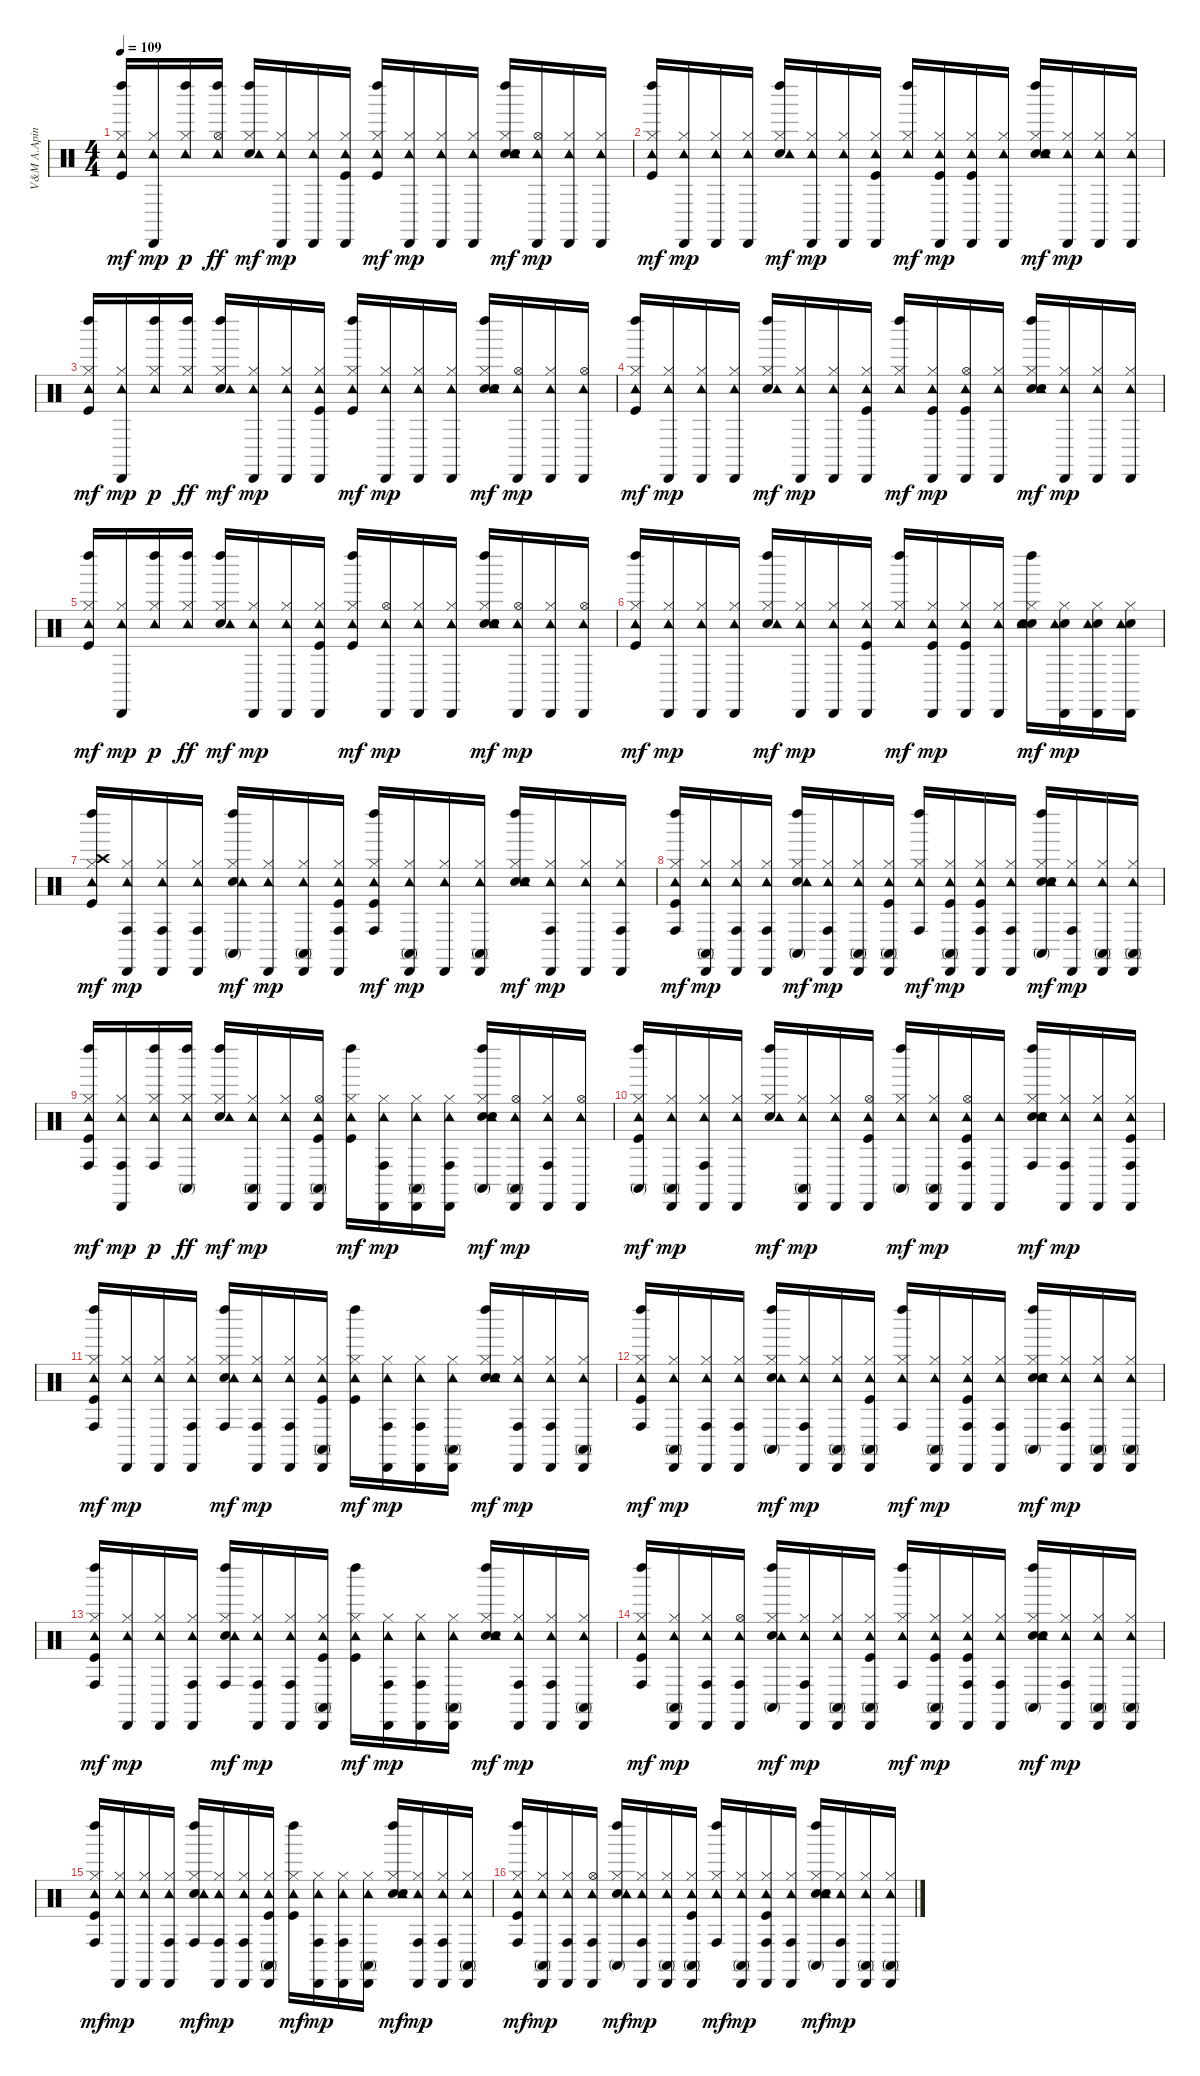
\track ("V&M A.Apin" "V&M A.Apin") {instrument percussion}
\staff {score}
\articulation defaults
\ts (4 4)
\tempo 109
\clef neutral
\ks c
("Kick (hit)" "Hi-Hat (closed)" "Tambourine (hit)" "Left Maraca (hit)").16{dy mf} ("Hi-Hat (closed)" "Tambourine (hit)" "Cabasa (hit)").16{dy mp} ("Hi-Hat (closed)" "Tambourine (hit)" "Left Maraca (hit)").16{dy p} ("Hi-Hat (open)" "Tambourine (hit)" "Left Maraca (hit)").16{dy ff} ("Snare (hit) 2" "Hi-Hat (closed)" "Tambourine (hit)" "Left Maraca (hit)").16{dy mf} ("Hi-Hat (closed)" "Tambourine (hit)" "Cabasa (hit)").16{dy mp} ("Hi-Hat (closed)" "Tambourine (hit)" "Cabasa (hit)").16 ("Kick (hit)" "Hi-Hat (closed)" "Tambourine (hit)" "Cabasa (hit)").16 ("Kick (hit)" "Hi-Hat (closed)" "Tambourine (hit)" "Left Maraca (hit)").16{dy mf} ("Hi-Hat (closed)" "Tambourine (hit)" "Cabasa (hit)").16{dy mp} ("Hi-Hat (closed)" "Tambourine (hit)" "Cabasa (hit)").16 ("Hi-Hat (closed)" "Tambourine (hit)" "Cabasa (hit)").16 ("Snare (hit) 2" "Hi-Hat (closed)" "Tambourine (hit)" "Hand Clap (hit)" "Left Maraca (hit)").16{dy mf} ("Hi-Hat (open)" "Tambourine (hit)" "Cabasa (hit)").16{dy mp} ("Hi-Hat (closed)" "Tambourine (hit)" "Cabasa (hit)").16 ("Hi-Hat (closed)" "Tambourine (hit)" "Cabasa (hit)").16 |
("Kick (hit)" "Hi-Hat (closed)" "Tambourine (hit)" "Left Maraca (hit)").16{dy mf} ("Hi-Hat (closed)" "Tambourine (hit)" "Cabasa (hit)").16{dy mp} ("Hi-Hat (closed)" "Tambourine (hit)" "Cabasa (hit)").16 ("Hi-Hat (closed)" "Tambourine (hit)" "Cabasa (hit)").16 ("Snare (hit) 2" "Hi-Hat (closed)" "Tambourine (hit)" "Left Maraca (hit)").16{dy mf} ("Hi-Hat (closed)" "Tambourine (hit)" "Cabasa (hit)").16{dy mp} ("Hi-Hat (closed)" "Tambourine (hit)" "Cabasa (hit)").16 ("Kick (hit)" "Hi-Hat (closed)" "Tambourine (hit)" "Cabasa (hit)").16 ("Hi-Hat (closed)" "Tambourine (hit)" "Left Maraca (hit)").16{dy mf} ("Kick (hit)" "Hi-Hat (closed)" "Tambourine (hit)" "Cabasa (hit)").16{dy mp} ("Kick (hit)" "Hi-Hat (closed)" "Tambourine (hit)" "Cabasa (hit)").16 ("Hi-Hat (closed)" "Tambourine (hit)" "Cabasa (hit)").16 ("Snare (hit) 2" "Hi-Hat (closed)" "Tambourine (hit)" "Hand Clap (hit)" "Left Maraca (hit)").16{dy mf} ("Hi-Hat (closed)" "Tambourine (hit)" "Cabasa (hit)").16{dy mp} ("Hi-Hat (closed)" "Tambourine (hit)" "Cabasa (hit)").16 ("Hi-Hat (closed)" "Tambourine (hit)" "Cabasa (hit)").16 |
("Kick (hit)" "Hi-Hat (closed)" "Tambourine (hit)" "Left Maraca (hit)").16{dy mf} ("Hi-Hat (closed)" "Tambourine (hit)" "Cabasa (hit)").16{dy mp} ("Hi-Hat (closed)" "Tambourine (hit)" "Left Maraca (hit)").16{dy p} ("Hi-Hat (closed)" "Tambourine (hit)" "Left Maraca (hit)").16{dy ff} ("Snare (hit) 2" "Hi-Hat (closed)" "Tambourine (hit)" "Left Maraca (hit)").16{dy mf} ("Hi-Hat (closed)" "Tambourine (hit)" "Cabasa (hit)").16{dy mp} ("Hi-Hat (closed)" "Tambourine (hit)" "Cabasa (hit)").16 ("Kick (hit)" "Hi-Hat (closed)" "Tambourine (hit)" "Cabasa (hit)").16 ("Kick (hit)" "Hi-Hat (closed)" "Tambourine (hit)" "Left Maraca (hit)").16{dy mf} ("Hi-Hat (closed)" "Tambourine (hit)" "Cabasa (hit)").16{dy mp} ("Hi-Hat (closed)" "Tambourine (hit)" "Cabasa (hit)").16 ("Hi-Hat (closed)" "Tambourine (hit)" "Cabasa (hit)").16 ("Snare (hit) 2" "Hi-Hat (closed)" "Tambourine (hit)" "Hand Clap (hit)" "Left Maraca (hit)").16{dy mf} ("Hi-Hat (open)" "Tambourine (hit)" "Cabasa (hit)").16{dy mp} ("Hi-Hat (closed)" "Tambourine (hit)" "Cabasa (hit)").16 ("Hi-Hat (open)" "Tambourine (hit)" "Cabasa (hit)").16 |
("Kick (hit)" "Hi-Hat (closed)" "Tambourine (hit)" "Left Maraca (hit)").16{dy mf} ("Hi-Hat (closed)" "Tambourine (hit)" "Cabasa (hit)").16{dy mp} ("Hi-Hat (closed)" "Tambourine (hit)" "Cabasa (hit)").16 ("Hi-Hat (closed)" "Tambourine (hit)" "Cabasa (hit)").16 ("Snare (hit) 2" "Hi-Hat (closed)" "Tambourine (hit)" "Left Maraca (hit)").16{dy mf} ("Hi-Hat (closed)" "Tambourine (hit)" "Cabasa (hit)").16{dy mp} ("Hi-Hat (closed)" "Tambourine (hit)" "Cabasa (hit)").16 ("Kick (hit)" "Hi-Hat (closed)" "Tambourine (hit)" "Cabasa (hit)").16 ("Hi-Hat (closed)" "Tambourine (hit)" "Left Maraca (hit)").16{dy mf} ("Kick (hit)" "Hi-Hat (closed)" "Tambourine (hit)" "Cabasa (hit)").16{dy mp} ("Kick (hit)" "Hi-Hat (open)" "Tambourine (hit)" "Cabasa (hit)").16 ("Hi-Hat (closed)" "Tambourine (hit)" "Cabasa (hit)").16 ("Snare (hit) 2" "Hi-Hat (closed)" "Tambourine (hit)" "Hand Clap (hit)" "Left Maraca (hit)").16{dy mf} ("Hi-Hat (closed)" "Tambourine (hit)" "Cabasa (hit)").16{dy mp} ("Hi-Hat (closed)" "Tambourine (hit)" "Cabasa (hit)").16 ("Hi-Hat (closed)" "Tambourine (hit)" "Cabasa (hit)").16 |
("Kick (hit)" "Hi-Hat (closed)" "Tambourine (hit)" "Left Maraca (hit)").16{dy mf} ("Hi-Hat (closed)" "Tambourine (hit)" "Cabasa (hit)").16{dy mp} ("Hi-Hat (closed)" "Tambourine (hit)" "Left Maraca (hit)").16{dy p} ("Hi-Hat (closed)" "Tambourine (hit)" "Left Maraca (hit)").16{dy ff} ("Snare (hit) 2" "Hi-Hat (closed)" "Tambourine (hit)" "Left Maraca (hit)").16{dy mf} ("Hi-Hat (closed)" "Tambourine (hit)" "Cabasa (hit)").16{dy mp} ("Hi-Hat (closed)" "Tambourine (hit)" "Cabasa (hit)").16 ("Kick (hit)" "Hi-Hat (closed)" "Tambourine (hit)" "Cabasa (hit)").16 ("Kick (hit)" "Hi-Hat (closed)" "Tambourine (hit)" "Left Maraca (hit)").16{dy mf} ("Hi-Hat (open)" "Tambourine (hit)" "Cabasa (hit)").16{dy mp} ("Hi-Hat (closed)" "Tambourine (hit)" "Cabasa (hit)").16 ("Hi-Hat (closed)" "Tambourine (hit)" "Cabasa (hit)").16 ("Snare (hit) 2" "Hi-Hat (closed)" "Tambourine (hit)" "Hand Clap (hit)" "Left Maraca (hit)").16{dy mf} ("Hi-Hat (open)" "Tambourine (hit)" "Cabasa (hit)").16{dy mp} ("Hi-Hat (closed)" "Tambourine (hit)" "Cabasa (hit)").16 ("Hi-Hat (open)" "Tambourine (hit)" "Cabasa (hit)").16 |
("Kick (hit)" "Hi-Hat (closed)" "Tambourine (hit)" "Left Maraca (hit)").16{dy mf} ("Hi-Hat (closed)" "Tambourine (hit)" "Cabasa (hit)").16{dy mp} ("Hi-Hat (closed)" "Tambourine (hit)" "Cabasa (hit)").16 ("Hi-Hat (closed)" "Tambourine (hit)" "Cabasa (hit)").16 ("Snare (hit) 2" "Hi-Hat (closed)" "Tambourine (hit)" "Left Maraca (hit)").16{dy mf} ("Hi-Hat (closed)" "Tambourine (hit)" "Cabasa (hit)").16{dy mp} ("Hi-Hat (closed)" "Tambourine (hit)" "Cabasa (hit)").16 ("Kick (hit)" "Hi-Hat (closed)" "Tambourine (hit)" "Cabasa (hit)").16 ("Hi-Hat (closed)" "Tambourine (hit)" "Left Maraca (hit)").16{dy mf} ("Kick (hit)" "Hi-Hat (closed)" "Tambourine (hit)" "Cabasa (hit)").16{dy mp} ("Kick (hit)" "Hi-Hat (closed)" "Tambourine (hit)" "Cabasa (hit)").16 ("Hi-Hat (closed)" "Tambourine (hit)" "Cabasa (hit)").16 ("Snare (hit) 2" "Hi-Hat (closed)" "Tambourine (hit)" "Hand Clap (hit)" "Left Maraca (hit)").16{dy mf} ("Snare (hit) 2" "Hi-Hat (closed)" "Tambourine (hit)" "Cabasa (hit)").16{dy mp} ("Snare (hit) 2" "Hi-Hat (closed)" "Tambourine (hit)" "Cabasa (hit)").16 ("Snare (hit) 2" "Hi-Hat (closed)" "Tambourine (hit)" "Cabasa (hit)").16 |
("Kick (hit)" "Hi-Hat (closed)" "Crash high (hit)" "Tambourine (hit)" "Left Maraca (hit)").16{dy mf} ("Hi-Hat (closed)" "Conga high (hit)" "Tambourine (hit)" "Cabasa (hit)").16{dy mp} ("Hi-Hat (closed)" "Conga high (hit)" "Tambourine (hit)" "Cabasa (hit)").16 ("Hi-Hat (closed)" "Conga high (hit)" "Tambourine (hit)" "Cabasa (hit)").16 ("Snare (hit) 2" "Hi-Hat (closed)" "Conga high (mute)" "Tambourine (hit)" "Left Maraca (hit)").16{dy mf} ("Hi-Hat (closed)" "Tambourine (hit)" "Cabasa (hit)").16{dy mp} ("Hi-Hat (closed)" "Conga high (mute)" "Tambourine (hit)" "Cabasa (hit)").16 ("Kick (hit)" "Hi-Hat (closed)" "Conga high (hit)" "Tambourine (hit)" "Cabasa (hit)").16 ("Kick (hit)" "Hi-Hat (closed)" "Conga high (hit)" "Tambourine (hit)" "Left Maraca (hit)").16{dy mf} ("Hi-Hat (closed)" "Conga high (mute)" "Tambourine (hit)" "Cabasa (hit)").16{dy mp} ("Hi-Hat (closed)" "Tambourine (hit)" "Cabasa (hit)").16 ("Hi-Hat (closed)" "Conga high (mute)" "Tambourine (hit)" "Cabasa (hit)").16 ("Snare (hit) 2" "Hi-Hat (closed)" "Tambourine (hit)" "Hand Clap (hit)" "Left Maraca (hit)").16{dy mf} ("Hi-Hat (closed)" "Conga high (hit)" "Tambourine (hit)" "Cabasa (hit)").16{dy mp} ("Hi-Hat (closed)" "Tambourine (hit)" "Cabasa (hit)").16 ("Hi-Hat (closed)" "Conga high (hit)" "Tambourine (hit)" "Cabasa (hit)").16 |
("Kick (hit)" "Hi-Hat (closed)" "Conga high (hit)" "Tambourine (hit)" "Left Maraca (hit)").16{dy mf} ("Hi-Hat (closed)" "Conga high (mute)" "Tambourine (hit)" "Cabasa (hit)").16{dy mp} ("Hi-Hat (closed)" "Conga high (hit)" "Tambourine (hit)" "Cabasa (hit)").16 ("Hi-Hat (closed)" "Conga high (hit)" "Tambourine (hit)" "Cabasa (hit)").16 ("Snare (hit) 2" "Hi-Hat (closed)" "Conga high (mute)" "Tambourine (hit)" "Left Maraca (hit)").16{dy mf} ("Hi-Hat (closed)" "Conga high (hit)" "Tambourine (hit)" "Cabasa (hit)").16{dy mp} ("Hi-Hat (closed)" "Conga high (mute)" "Tambourine (hit)" "Cabasa (hit)").16 ("Kick (hit)" "Hi-Hat (closed)" "Conga high (mute)" "Tambourine (hit)" "Cabasa (hit)").16 ("Hi-Hat (closed)" "Conga high (hit)" "Tambourine (hit)" "Left Maraca (hit)").16{dy mf} ("Kick (hit)" "Hi-Hat (closed)" "Conga high (mute)" "Tambourine (hit)" "Cabasa (hit)").16{dy mp} ("Kick (hit)" "Hi-Hat (closed)" "Conga high (hit)" "Tambourine (hit)" "Cabasa (hit)").16 ("Hi-Hat (closed)" "Conga high (hit)" "Tambourine (hit)" "Cabasa (hit)").16 ("Snare (hit) 2" "Hi-Hat (closed)" "Conga high (mute)" "Tambourine (hit)" "Hand Clap (hit)" "Left Maraca (hit)").16{dy mf} ("Hi-Hat (closed)" "Conga high (hit)" "Tambourine (hit)" "Cabasa (hit)").16{dy mp} ("Hi-Hat (closed)" "Conga high (mute)" "Tambourine (hit)" "Cabasa (hit)").16 ("Hi-Hat (closed)" "Conga high (mute)" "Tambourine (hit)" "Cabasa (hit)").16 |
("Kick (hit)" "Hi-Hat (closed)" "Conga high (hit)" "Tambourine (hit)" "Left Maraca (hit)").16{dy mf} ("Hi-Hat (closed)" "Conga high (hit)" "Tambourine (hit)" "Cabasa (hit)").16{dy mp} ("Hi-Hat (closed)" "Conga high (hit)" "Tambourine (hit)" "Left Maraca (hit)").16{dy p} ("Hi-Hat (closed)" "Conga high (mute)" "Tambourine (hit)" "Left Maraca (hit)").16{dy ff} ("Snare (hit) 2" "Hi-Hat (closed)" "Tambourine (hit)" "Left Maraca (hit)").16{dy mf} ("Hi-Hat (closed)" "Conga high (mute)" "Tambourine (hit)" "Cabasa (hit)").16{dy mp} ("Hi-Hat (closed)" "Tambourine (hit)" "Cabasa (hit)").16 ("Kick (hit)" "Hi-Hat (open)" "Conga high (mute)" "Tambourine (hit)" "Cabasa (hit)").16 ("Kick (hit)" "Hi-Hat (closed)" "Tambourine (hit)" "Left Maraca (hit)").16{dy mf} ("Hi-Hat (closed)" "Conga high (hit)" "Tambourine (hit)" "Cabasa (hit)").16{dy mp} ("Hi-Hat (closed)" "Conga high (mute)" "Tambourine (hit)" "Cabasa (hit)").16 ("Hi-Hat (closed)" "Conga high (hit)" "Tambourine (hit)" "Cabasa (hit)").16 ("Snare (hit) 2" "Hi-Hat (closed)" "Conga high (mute)" "Tambourine (hit)" "Hand Clap (hit)" "Left Maraca (hit)").16{dy mf} ("Hi-Hat (open)" "Conga high (mute)" "Tambourine (hit)" "Cabasa (hit)").16{dy mp} ("Hi-Hat (closed)" "Conga high (hit)" "Tambourine (hit)" "Cabasa (hit)").16 ("Hi-Hat (open)" "Tambourine (hit)" "Cabasa (hit)").16 |
("Kick (hit)" "Hi-Hat (closed)" "Conga high (mute)" "Tambourine (hit)" "Left Maraca (hit)").16{dy mf} ("Hi-Hat (closed)" "Conga high (mute)" "Tambourine (hit)" "Cabasa (hit)").16{dy mp} ("Hi-Hat (closed)" "Conga high (hit)" "Tambourine (hit)" "Cabasa (hit)").16 ("Hi-Hat (closed)" "Tambourine (hit)" "Cabasa (hit)").16 ("Snare (hit) 2" "Hi-Hat (closed)" "Tambourine (hit)" "Left Maraca (hit)").16{dy mf} ("Hi-Hat (closed)" "Conga high (mute)" "Tambourine (hit)" "Cabasa (hit)").16{dy mp} ("Hi-Hat (closed)" "Tambourine (hit)" "Cabasa (hit)").16 ("Kick (hit)" "Hi-Hat (open)" "Tambourine (hit)" "Cabasa (hit)").16 ("Hi-Hat (closed)" "Conga high (mute)" "Tambourine (hit)" "Left Maraca (hit)").16{dy mf} ("Hi-Hat (closed)" "Conga high (mute)" "Tambourine (hit)" "Cabasa (hit)").16{dy mp} ("Kick (hit)" "Hi-Hat (open)" "Conga high (hit)" "Tambourine (hit)" "Cabasa (hit)").16 ("Tambourine (hit)" "Cabasa (hit)").16 ("Snare (hit) 2" "Hi-Hat (closed)" "Conga high (hit)" "Tambourine (hit)" "Hand Clap (hit)" "Left Maraca (hit)").16{dy mf} ("Hi-Hat (closed)" "Conga high (hit)" "Tambourine (hit)" "Cabasa (hit)").16{dy mp} ("Hi-Hat (closed)" "Tambourine (hit)" "Cabasa (hit)").16 ("Kick (hit)" "Hi-Hat (closed)" "Conga high (hit)" "Tambourine (hit)" "Cabasa (hit)").16 |
("Kick (hit)" "Hi-Hat (closed)" "Conga high (hit)" "Tambourine (hit)" "Left Maraca (hit)").16{dy mf} ("Hi-Hat (closed)" "Tambourine (hit)" "Cabasa (hit)").16{dy mp} ("Hi-Hat (closed)" "Tambourine (hit)" "Cabasa (hit)").16 ("Hi-Hat (closed)" "Conga high (hit)" "Tambourine (hit)" "Cabasa (hit)").16 ("Snare (hit) 2" "Hi-Hat (closed)" "Conga high (hit)" "Tambourine (hit)" "Left Maraca (hit)").16{dy mf} ("Hi-Hat (closed)" "Conga high (hit)" "Tambourine (hit)" "Cabasa (hit)").16{dy mp} ("Hi-Hat (closed)" "Conga high (hit)" "Tambourine (hit)" "Cabasa (hit)").16 ("Kick (hit)" "Hi-Hat (closed)" "Conga high (mute)" "Tambourine (hit)" "Cabasa (hit)").16 ("Kick (hit)" "Hi-Hat (closed)" "Tambourine (hit)" "Left Maraca (hit)").16{dy mf} ("Hi-Hat (closed)" "Conga high (hit)" "Tambourine (hit)" "Cabasa (hit)").16{dy mp} ("Hi-Hat (closed)" "Conga high (hit)" "Tambourine (hit)" "Cabasa (hit)").16 ("Hi-Hat (closed)" "Conga high (mute)" "Tambourine (hit)" "Cabasa (hit)").16 ("Snare (hit) 2" "Hi-Hat (closed)" "Tambourine (hit)" "Hand Clap (hit)" "Left Maraca (hit)").16{dy mf} ("Hi-Hat (closed)" "Conga high (hit)" "Tambourine (hit)" "Cabasa (hit)").16{dy mp} ("Hi-Hat (closed)" "Conga high (hit)" "Tambourine (hit)" "Cabasa (hit)").16 ("Hi-Hat (closed)" "Conga high (mute)" "Tambourine (hit)" "Cabasa (hit)").16 |
("Kick (hit)" "Hi-Hat (closed)" "Conga high (hit)" "Tambourine (hit)" "Left Maraca (hit)").16{dy mf} ("Hi-Hat (closed)" "Conga high (mute)" "Tambourine (hit)" "Cabasa (hit)").16{dy mp} ("Hi-Hat (closed)" "Conga high (hit)" "Tambourine (hit)" "Cabasa (hit)").16 ("Hi-Hat (closed)" "Conga high (hit)" "Tambourine (hit)" "Cabasa (hit)").16 ("Snare (hit) 2" "Hi-Hat (closed)" "Conga high (mute)" "Tambourine (hit)" "Left Maraca (hit)").16{dy mf} ("Hi-Hat (closed)" "Conga high (hit)" "Tambourine (hit)" "Cabasa (hit)").16{dy mp} ("Hi-Hat (closed)" "Conga high (mute)" "Tambourine (hit)" "Cabasa (hit)").16 ("Kick (hit)" "Hi-Hat (closed)" "Conga high (mute)" "Tambourine (hit)" "Cabasa (hit)").16 ("Hi-Hat (closed)" "Conga high (hit)" "Tambourine (hit)" "Left Maraca (hit)").16{dy mf} ("Hi-Hat (closed)" "Conga high (mute)" "Tambourine (hit)" "Cabasa (hit)").16{dy mp} ("Kick (hit)" "Hi-Hat (closed)" "Conga high (hit)" "Tambourine (hit)" "Cabasa (hit)").16 ("Hi-Hat (closed)" "Conga high (hit)" "Tambourine (hit)" "Cabasa (hit)").16 ("Snare (hit) 2" "Hi-Hat (closed)" "Conga high (mute)" "Tambourine (hit)" "Hand Clap (hit)" "Left Maraca (hit)").16{dy mf} ("Hi-Hat (closed)" "Conga high (hit)" "Tambourine (hit)" "Cabasa (hit)").16{dy mp} ("Hi-Hat (closed)" "Conga high (mute)" "Tambourine (hit)" "Cabasa (hit)").16 ("Hi-Hat (closed)" "Conga high (mute)" "Tambourine (hit)" "Cabasa (hit)").16 |
("Kick (hit)" "Hi-Hat (closed)" "Conga high (hit)" "Tambourine (hit)" "Left Maraca (hit)").16{dy mf} ("Hi-Hat (closed)" "Tambourine (hit)" "Cabasa (hit)").16{dy mp} ("Hi-Hat (closed)" "Tambourine (hit)" "Cabasa (hit)").16 ("Hi-Hat (closed)" "Conga high (hit)" "Tambourine (hit)" "Cabasa (hit)").16 ("Snare (hit) 2" "Hi-Hat (closed)" "Conga high (hit)" "Tambourine (hit)" "Left Maraca (hit)").16{dy mf} ("Hi-Hat (closed)" "Conga high (hit)" "Tambourine (hit)" "Cabasa (hit)").16{dy mp} ("Hi-Hat (closed)" "Conga high (hit)" "Tambourine (hit)" "Cabasa (hit)").16 ("Kick (hit)" "Hi-Hat (closed)" "Conga high (mute)" "Tambourine (hit)" "Cabasa (hit)").16 ("Kick (hit)" "Hi-Hat (closed)" "Tambourine (hit)" "Left Maraca (hit)").16{dy mf} ("Hi-Hat (closed)" "Conga high (hit)" "Tambourine (hit)" "Cabasa (hit)").16{dy mp} ("Hi-Hat (closed)" "Conga high (hit)" "Tambourine (hit)" "Cabasa (hit)").16 ("Hi-Hat (closed)" "Conga high (mute)" "Tambourine (hit)" "Cabasa (hit)").16 ("Snare (hit) 2" "Hi-Hat (closed)" "Tambourine (hit)" "Hand Clap (hit)" "Left Maraca (hit)").16{dy mf} ("Hi-Hat (closed)" "Conga high (hit)" "Tambourine (hit)" "Cabasa (hit)").16{dy mp} ("Hi-Hat (closed)" "Conga high (hit)" "Tambourine (hit)" "Cabasa (hit)").16 ("Hi-Hat (closed)" "Conga high (mute)" "Tambourine (hit)" "Cabasa (hit)").16 |
("Kick (hit)" "Hi-Hat (closed)" "Conga high (hit)" "Tambourine (hit)" "Left Maraca (hit)").16{dy mf} ("Hi-Hat (closed)" "Conga high (mute)" "Tambourine (hit)" "Cabasa (hit)").16{dy mp} ("Hi-Hat (closed)" "Conga high (hit)" "Tambourine (hit)" "Cabasa (hit)").16 ("Hi-Hat (open)" "Conga high (hit)" "Tambourine (hit)" "Cabasa (hit)").16 ("Snare (hit) 2" "Hi-Hat (closed)" "Conga high (mute)" "Tambourine (hit)" "Left Maraca (hit)").16{dy mf} ("Hi-Hat (closed)" "Conga high (hit)" "Tambourine (hit)" "Cabasa (hit)").16{dy mp} ("Hi-Hat (closed)" "Conga high (mute)" "Tambourine (hit)" "Cabasa (hit)").16 ("Kick (hit)" "Hi-Hat (closed)" "Conga high (mute)" "Tambourine (hit)" "Cabasa (hit)").16 ("Hi-Hat (closed)" "Conga high (hit)" "Tambourine (hit)" "Left Maraca (hit)").16{dy mf} ("Kick (hit)" "Hi-Hat (closed)" "Conga high (mute)" "Tambourine (hit)" "Cabasa (hit)").16{dy mp} ("Kick (hit)" "Hi-Hat (closed)" "Conga high (hit)" "Tambourine (hit)" "Cabasa (hit)").16 ("Hi-Hat (closed)" "Conga high (hit)" "Tambourine (hit)" "Cabasa (hit)").16 ("Snare (hit) 2" "Hi-Hat (closed)" "Conga high (mute)" "Tambourine (hit)" "Hand Clap (hit)" "Left Maraca (hit)").16{dy mf} ("Hi-Hat (closed)" "Conga high (hit)" "Tambourine (hit)" "Cabasa (hit)").16{dy mp} ("Hi-Hat (closed)" "Conga high (mute)" "Tambourine (hit)" "Cabasa (hit)").16 ("Hi-Hat (closed)" "Conga high (mute)" "Tambourine (hit)" "Cabasa (hit)").16 |
("Kick (hit)" "Hi-Hat (closed)" "Conga high (hit)" "Tambourine (hit)" "Left Maraca (hit)").16{dy mf} ("Hi-Hat (closed)" "Tambourine (hit)" "Cabasa (hit)").16{dy mp} ("Hi-Hat (closed)" "Tambourine (hit)" "Cabasa (hit)").16 ("Hi-Hat (closed)" "Conga high (hit)" "Tambourine (hit)" "Cabasa (hit)").16 ("Snare (hit) 2" "Hi-Hat (closed)" "Conga high (hit)" "Tambourine (hit)" "Left Maraca (hit)").16{dy mf} ("Hi-Hat (closed)" "Conga high (hit)" "Tambourine (hit)" "Cabasa (hit)").16{dy mp} ("Hi-Hat (closed)" "Conga high (hit)" "Tambourine (hit)" "Cabasa (hit)").16 ("Kick (hit)" "Hi-Hat (closed)" "Conga high (mute)" "Tambourine (hit)" "Cabasa (hit)").16 ("Kick (hit)" "Hi-Hat (closed)" "Tambourine (hit)" "Left Maraca (hit)").16{dy mf} ("Hi-Hat (closed)" "Conga high (hit)" "Tambourine (hit)" "Cabasa (hit)").16{dy mp} ("Hi-Hat (closed)" "Conga high (hit)" "Tambourine (hit)" "Cabasa (hit)").16 ("Hi-Hat (closed)" "Conga high (mute)" "Tambourine (hit)" "Cabasa (hit)").16 ("Snare (hit) 2" "Hi-Hat (closed)" "Tambourine (hit)" "Hand Clap (hit)" "Left Maraca (hit)").16{dy mf} ("Hi-Hat (closed)" "Conga high (hit)" "Tambourine (hit)" "Cabasa (hit)").16{dy mp} ("Hi-Hat (closed)" "Conga high (hit)" "Tambourine (hit)" "Cabasa (hit)").16 ("Hi-Hat (closed)" "Conga high (mute)" "Tambourine (hit)" "Cabasa (hit)").16 |
("Kick (hit)" "Hi-Hat (closed)" "Conga high (hit)" "Tambourine (hit)" "Left Maraca (hit)").16{dy mf} ("Hi-Hat (closed)" "Conga high (mute)" "Tambourine (hit)" "Cabasa (hit)").16{dy mp} ("Hi-Hat (closed)" "Conga high (hit)" "Tambourine (hit)" "Cabasa (hit)").16 ("Hi-Hat (open)" "Conga high (hit)" "Tambourine (hit)" "Cabasa (hit)").16 ("Snare (hit) 2" "Hi-Hat (closed)" "Conga high (mute)" "Tambourine (hit)" "Left Maraca (hit)").16{dy mf} ("Hi-Hat (closed)" "Conga high (hit)" "Tambourine (hit)" "Cabasa (hit)").16{dy mp} ("Hi-Hat (closed)" "Conga high (mute)" "Tambourine (hit)" "Cabasa (hit)").16 ("Kick (hit)" "Hi-Hat (closed)" "Conga high (mute)" "Tambourine (hit)" "Cabasa (hit)").16 ("Hi-Hat (closed)" "Conga high (hit)" "Tambourine (hit)" "Left Maraca (hit)").16{dy mf} ("Hi-Hat (closed)" "Conga high (mute)" "Tambourine (hit)" "Cabasa (hit)").16{dy mp} ("Kick (hit)" "Hi-Hat (closed)" "Conga high (hit)" "Tambourine (hit)" "Cabasa (hit)").16 ("Hi-Hat (closed)" "Conga high (hit)" "Tambourine (hit)" "Cabasa (hit)").16 ("Snare (hit) 2" "Hi-Hat (closed)" "Conga high (mute)" "Tambourine (hit)" "Hand Clap (hit)" "Left Maraca (hit)").16{dy mf} ("Hi-Hat (closed)" "Conga high (hit)" "Tambourine (hit)" "Cabasa (hit)").16{dy mp} ("Hi-Hat (closed)" "Conga high (mute)" "Tambourine (hit)" "Cabasa (hit)").16 ("Hi-Hat (closed)" "Conga high (mute)" "Tambourine (hit)" "Cabasa (hit)").16
